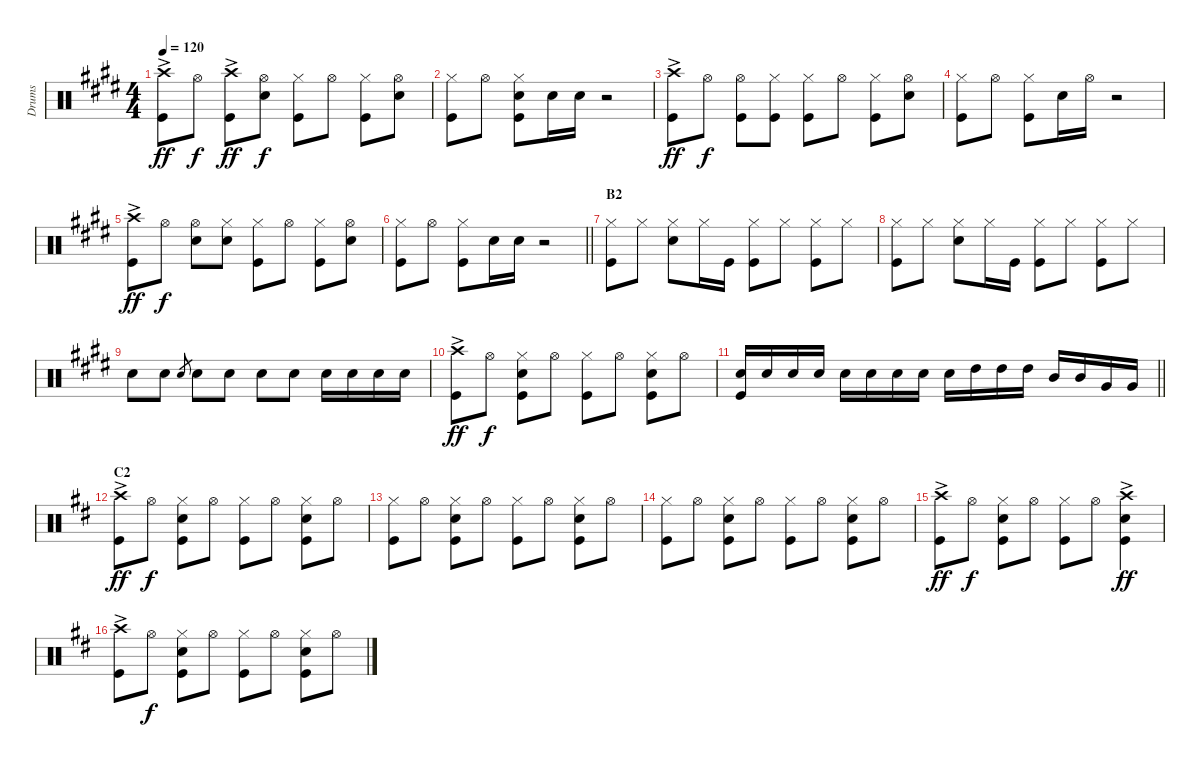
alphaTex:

\track ("Drums" "Drums") {instrument percussion}
\staff {score}
\articulation defaults
\ts (4 4)
\tempo 120
\clef neutral
\ks e
("Crash high (hit)"{ac} "Kick (hit)").8{dy ff} "Hi-Hat (open)".8{dy f} ("Crash high (hit)"{ac} "Kick (hit)").8{dy ff} ("Hi-Hat (open)" "Snare (hit) 2").8{dy f} ("Hi-Hat (closed)" "Kick (hit)").8 "Hi-Hat (open)".8 ("Hi-Hat (closed)" "Kick (hit)").8 ("Hi-Hat (open)" "Snare (hit) 2").8 |
("Hi-Hat (closed)" "Kick (hit)").8 "Hi-Hat (open)".8 ("Hi-Hat (closed)" "Kick (hit)" "Snare (hit) 2").8 "Snare (hit) 2".16 "Snare (hit) 2".16 r.2 |
("Crash high (hit)"{ac} "Kick (hit)").8{dy ff} "Hi-Hat (open)".8{dy f} ("Hi-Hat (open)" "Kick (hit)").8 ("Hi-Hat (closed)" "Kick (hit)").8 ("Hi-Hat (closed)" "Kick (hit)").8 "Hi-Hat (open)".8 ("Hi-Hat (closed)" "Kick (hit)").8 ("Hi-Hat (open)" "Snare (hit) 2").8 |
("Hi-Hat (closed)" "Kick (hit)").8 "Hi-Hat (open)".8 ("Hi-Hat (closed)" "Kick (hit)").8 "Snare (hit) 2".16 "Hi-Hat (open)".16 r.2 |
("Crash high (hit)"{ac} "Kick (hit)").8{dy ff} "Hi-Hat (open)".8{dy f} ("Hi-Hat (open)" "Snare (hit) 2").8 ("Hi-Hat (closed)" "Snare (hit) 2").8 ("Hi-Hat (closed)" "Kick (hit)").8 "Hi-Hat (open)".8 ("Hi-Hat (closed)" "Kick (hit)").8 ("Hi-Hat (open)" "Snare (hit) 2").8 |
\barLineRight lightlight
("Hi-Hat (closed)" "Kick (hit)").8 "Hi-Hat (open)".8 ("Hi-Hat (closed)" "Kick (hit)").8 "Snare (hit) 2".16 "Snare (hit) 2".16 r.2 |
\section ("" "B2")
("Hi-Hat (closed)" "Kick (hit)").8 "Hi-Hat (closed)".8 ("Hi-Hat (closed)" "Snare (hit) 2").8 "Hi-Hat (closed)".16 "Kick (hit)".16 ("Hi-Hat (closed)" "Kick (hit)").8 "Hi-Hat (closed)".8 ("Hi-Hat (closed)" "Kick (hit)").8 "Hi-Hat (closed)".8 |
("Hi-Hat (closed)" "Kick (hit)").8 "Hi-Hat (closed)".8 ("Hi-Hat (closed)" "Snare (hit) 2").8 "Hi-Hat (closed)".16 "Kick (hit)".16 ("Hi-Hat (closed)" "Kick (hit)").8 "Hi-Hat (closed)".8 ("Hi-Hat (closed)" "Kick (hit)").8 "Hi-Hat (closed)".8 |
"Snare (hit) 2".8 "Snare (hit) 2".8 "Snare (hit) 2".8{gr} "Snare (hit) 2".8 "Snare (hit) 2".8 "Snare (hit) 2".8 "Snare (hit) 2".8 "Snare (hit) 2".16 "Snare (hit) 2".16 "Snare (hit) 2".16 "Snare (hit) 2".16 |
("Crash high (hit)"{ac} "Kick (hit)").8{dy ff} "Hi-Hat (open)".8{dy f} ("Hi-Hat (closed)" "Kick (hit)" "Snare (hit) 2").8 "Hi-Hat (open)".8 ("Kick (hit)" "Hi-Hat (closed)").8 "Hi-Hat (open)".8 ("Hi-Hat (closed)" "Kick (hit)" "Snare (hit) 2").8 "Hi-Hat (open)".8 |
\barLineRight lightlight
("Kick (hit)" "Snare (hit) 2").16 "Snare (hit) 2".16 "Snare (hit) 2".16 "Snare (hit) 2".16 "Snare (hit) 2".16 "Snare (hit) 2".16 "Snare (hit) 2".16 "Snare (hit) 2".16 "Snare (hit) 2".16 "High Tom (hit)".16 "High Tom (hit)".16 "High Tom (hit)".16 "Mid Tom (hit)".16 "Mid Tom (hit)".16 "Very Low Tom (hit)".16 "Very Low Tom (hit)".16 |
\section ("" "C2")
\ks d
("Crash high (hit)"{ac} "Kick (hit)").8{dy ff} "Hi-Hat (open)".8{dy f} ("Hi-Hat (closed)" "Kick (hit)" "Snare (hit) 2").8 "Hi-Hat (open)".8 ("Hi-Hat (closed)" "Kick (hit)").8 "Hi-Hat (open)".8 ("Hi-Hat (closed)" "Kick (hit)" "Snare (hit) 2").8 "Hi-Hat (open)".8 |
("Hi-Hat (closed)" "Kick (hit)").8 "Hi-Hat (open)".8 ("Hi-Hat (closed)" "Kick (hit)" "Snare (hit) 2").8 "Hi-Hat (open)".8 ("Hi-Hat (closed)" "Kick (hit)").8 "Hi-Hat (open)".8 ("Hi-Hat (closed)" "Kick (hit)" "Snare (hit) 2").8 "Hi-Hat (open)".8 |
("Hi-Hat (closed)" "Kick (hit)").8 "Hi-Hat (open)".8 ("Hi-Hat (closed)" "Kick (hit)" "Snare (hit) 2").8 "Hi-Hat (open)".8 ("Hi-Hat (closed)" "Kick (hit)").8 "Hi-Hat (open)".8 ("Hi-Hat (closed)" "Kick (hit)" "Snare (hit) 2").8 "Hi-Hat (open)".8 |
("Crash high (hit)"{ac} "Kick (hit)").8{dy ff} "Hi-Hat (open)".8{dy f} ("Hi-Hat (closed)" "Kick (hit)" "Snare (hit) 2").8 "Hi-Hat (open)".8 ("Hi-Hat (closed)" "Kick (hit)").8 "Hi-Hat (open)".8 ("Crash high (hit)"{ac} "Kick (hit)" "Snare (hit) 2").4{dy ff} |
("Crash high (hit)"{ac} "Kick (hit)").8 "Hi-Hat (open)".8{dy f} ("Hi-Hat (closed)" "Kick (hit)" "Snare (hit) 2").8 "Hi-Hat (open)".8 ("Hi-Hat (closed)" "Kick (hit)").8 "Hi-Hat (open)".8 ("Hi-Hat (closed)" "Kick (hit)" "Snare (hit) 2").8 "Hi-Hat (open)".8
